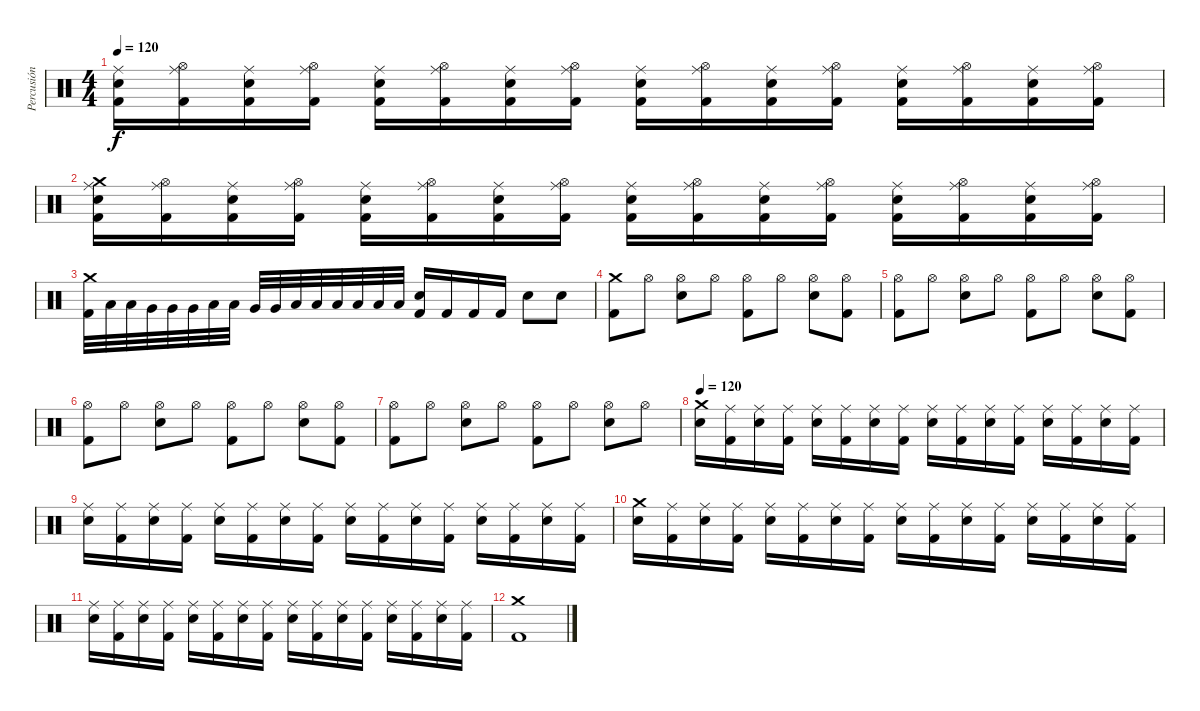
\track ("Percusión" "Percusión") {instrument percussion}
\staff {score}
\articulation defaults
\ts (4 4)
\tempo 120
\clef neutral
\ks c
("Ride (middle)" "Electric Snare (hit)" "Kick (hit) 2").16{dy f} ("Ride (middle)" "Hi-Hat (open)" "Kick (hit) 2").16 ("Ride (middle)" "Electric Snare (hit)" "Kick (hit) 2").16 ("Ride (middle)" "Hi-Hat (open)" "Kick (hit) 2").16 ("Ride (middle)" "Electric Snare (hit)" "Kick (hit) 2").16 ("Ride (middle)" "Hi-Hat (open)" "Kick (hit) 2").16 ("Ride (middle)" "Electric Snare (hit)" "Kick (hit) 2").16 ("Ride (middle)" "Hi-Hat (open)" "Kick (hit) 2").16 ("Ride (middle)" "Electric Snare (hit)" "Kick (hit) 2").16 ("Ride (middle)" "Hi-Hat (open)" "Kick (hit) 2").16 ("Ride (middle)" "Electric Snare (hit)" "Kick (hit) 2").16 ("Ride (middle)" "Hi-Hat (open)" "Kick (hit) 2").16 ("Ride (middle)" "Electric Snare (hit)" "Kick (hit) 2").16 ("Ride (middle)" "Hi-Hat (open)" "Kick (hit) 2").16 ("Ride (middle)" "Electric Snare (hit)" "Kick (hit) 2").16 ("Ride (middle)" "Hi-Hat (open)" "Kick (hit) 2").16 |
("Ride (middle)" "Crash medium (hit)" "Electric Snare (hit)" "Kick (hit) 2").16 ("Ride (middle)" "Hi-Hat (open)" "Kick (hit) 2").16 ("Ride (middle)" "Electric Snare (hit)" "Kick (hit) 2").16 ("Ride (middle)" "Hi-Hat (open)" "Kick (hit) 2").16 ("Ride (middle)" "Electric Snare (hit)" "Kick (hit) 2").16 ("Ride (middle)" "Hi-Hat (open)" "Kick (hit) 2").16 ("Ride (middle)" "Electric Snare (hit)" "Kick (hit) 2").16 ("Ride (middle)" "Hi-Hat (open)" "Kick (hit) 2").16 ("Ride (middle)" "Electric Snare (hit)" "Kick (hit) 2").16 ("Ride (middle)" "Hi-Hat (open)" "Kick (hit) 2").16 ("Ride (middle)" "Electric Snare (hit)" "Kick (hit) 2").16 ("Ride (middle)" "Hi-Hat (open)" "Kick (hit) 2").16 ("Ride (middle)" "Electric Snare (hit)" "Kick (hit) 2").16 ("Ride (middle)" "Hi-Hat (open)" "Kick (hit) 2").16 ("Ride (middle)" "Electric Snare (hit)" "Kick (hit) 2").16 ("Ride (middle)" "Hi-Hat (open)" "Kick (hit) 2").16 |
("Crash medium (hit)" "Kick (hit) 2").32 "Low Tom (hit)".32 "Low Tom (hit)".32 "Very Low Tom (hit)".32 "Very Low Tom (hit)".32 "Very Low Tom (hit)".32 "Low Floor Tom (hit)".32 "Low Floor Tom (hit)".32 "Very Low Tom (hit)".32 "Very Low Tom (hit)".32 "Low Floor Tom (hit)".32 "Low Floor Tom (hit)".32 "Low Tom (hit)".32 "Low Tom (hit)".32 "Low Floor Tom (hit)".32 "Low Floor Tom (hit)".32 ("Electric Snare (hit)" "Kick (hit) 2").16 "Kick (hit) 2".16 "Kick (hit) 2".16 "Kick (hit) 2".16 "Electric Snare (hit)".8 "Electric Snare (hit)".8 |
("Crash medium (hit)" "Kick (hit) 2").8 "Hi-Hat (open)".8 ("Hi-Hat (open)" "Electric Snare (hit)").8 "Hi-Hat (open)".8 ("Hi-Hat (open)" "Kick (hit) 2").8 "Hi-Hat (open)".8 ("Hi-Hat (open)" "Electric Snare (hit)").8 ("Hi-Hat (open)" "Kick (hit) 2").8 |
("Hi-Hat (open)" "Kick (hit) 2").8 "Hi-Hat (open)".8 ("Hi-Hat (open)" "Electric Snare (hit)").8 "Hi-Hat (open)".8 ("Hi-Hat (open)" "Kick (hit) 2").8 "Hi-Hat (open)".8 ("Hi-Hat (open)" "Electric Snare (hit)").8 ("Hi-Hat (open)" "Kick (hit) 2").8 |
("Hi-Hat (open)" "Kick (hit) 2").8 "Hi-Hat (open)".8 ("Hi-Hat (open)" "Electric Snare (hit)").8 "Hi-Hat (open)".8 ("Hi-Hat (open)" "Kick (hit) 2").8 "Hi-Hat (open)".8 ("Hi-Hat (open)" "Electric Snare (hit)").8 ("Hi-Hat (open)" "Kick (hit) 2").8 |
("Hi-Hat (open)" "Kick (hit) 2").8 "Hi-Hat (open)".8 ("Hi-Hat (open)" "Electric Snare (hit)").8 "Hi-Hat (open)".8 ("Hi-Hat (open)" "Kick (hit) 2").8 "Hi-Hat (open)".8 ("Hi-Hat (open)" "Electric Snare (hit)").8 "Hi-Hat (open)".8 |
\tempo 120
("Crash medium (hit)" "Electric Snare (hit)").16 ("Ride (middle)" "Kick (hit) 2").16 ("Ride (middle)" "Electric Snare (hit)").16 ("Ride (middle)" "Kick (hit) 2").16 ("Ride (middle)" "Electric Snare (hit)").16 ("Ride (middle)" "Kick (hit) 2").16 ("Ride (middle)" "Electric Snare (hit)").16 ("Ride (middle)" "Kick (hit) 2").16 ("Ride (middle)" "Electric Snare (hit)").16 ("Ride (middle)" "Kick (hit) 2").16 ("Ride (middle)" "Electric Snare (hit)").16 ("Ride (middle)" "Kick (hit) 2").16 ("Ride (middle)" "Electric Snare (hit)").16 ("Ride (middle)" "Kick (hit) 2").16 ("Ride (middle)" "Electric Snare (hit)").16 ("Ride (middle)" "Kick (hit) 2").16 |
("Ride (middle)" "Electric Snare (hit)").16 ("Ride (middle)" "Kick (hit) 2").16 ("Ride (middle)" "Electric Snare (hit)").16 ("Ride (middle)" "Kick (hit) 2").16 ("Ride (middle)" "Electric Snare (hit)").16 ("Ride (middle)" "Kick (hit) 2").16 ("Ride (middle)" "Electric Snare (hit)").16 ("Ride (middle)" "Kick (hit) 2").16 ("Ride (middle)" "Electric Snare (hit)").16 ("Ride (middle)" "Kick (hit) 2").16 ("Ride (middle)" "Electric Snare (hit)").16 ("Ride (middle)" "Kick (hit) 2").16 ("Ride (middle)" "Electric Snare (hit)").16 ("Ride (middle)" "Kick (hit) 2").16 ("Ride (middle)" "Electric Snare (hit)").16 ("Ride (middle)" "Kick (hit) 2").16 |
("Crash medium (hit)" "Electric Snare (hit)").16 ("Ride (middle)" "Kick (hit) 2").16 ("Ride (middle)" "Electric Snare (hit)").16 ("Ride (middle)" "Kick (hit) 2").16 ("Ride (middle)" "Electric Snare (hit)").16 ("Ride (middle)" "Kick (hit) 2").16 ("Ride (middle)" "Electric Snare (hit)").16 ("Ride (middle)" "Kick (hit) 2").16 ("Ride (middle)" "Electric Snare (hit)").16 ("Ride (middle)" "Kick (hit) 2").16 ("Ride (middle)" "Electric Snare (hit)").16 ("Ride (middle)" "Kick (hit) 2").16 ("Ride (middle)" "Electric Snare (hit)").16 ("Ride (middle)" "Kick (hit) 2").16 ("Ride (middle)" "Electric Snare (hit)").16 ("Ride (middle)" "Kick (hit) 2").16 |
("Ride (middle)" "Electric Snare (hit)").16 ("Ride (middle)" "Kick (hit) 2").16 ("Ride (middle)" "Electric Snare (hit)").16 ("Ride (middle)" "Kick (hit) 2").16 ("Ride (middle)" "Electric Snare (hit)").16 ("Ride (middle)" "Kick (hit) 2").16 ("Ride (middle)" "Electric Snare (hit)").16 ("Ride (middle)" "Kick (hit) 2").16 ("Ride (middle)" "Electric Snare (hit)").16 ("Ride (middle)" "Kick (hit) 2").16 ("Ride (middle)" "Electric Snare (hit)").16 ("Ride (middle)" "Kick (hit) 2").16 ("Ride (middle)" "Electric Snare (hit)").16 ("Ride (middle)" "Kick (hit) 2").16 ("Ride (middle)" "Electric Snare (hit)").16 ("Ride (middle)" "Kick (hit) 2").16 |
("Crash medium (hit)" "Kick (hit) 2").1
